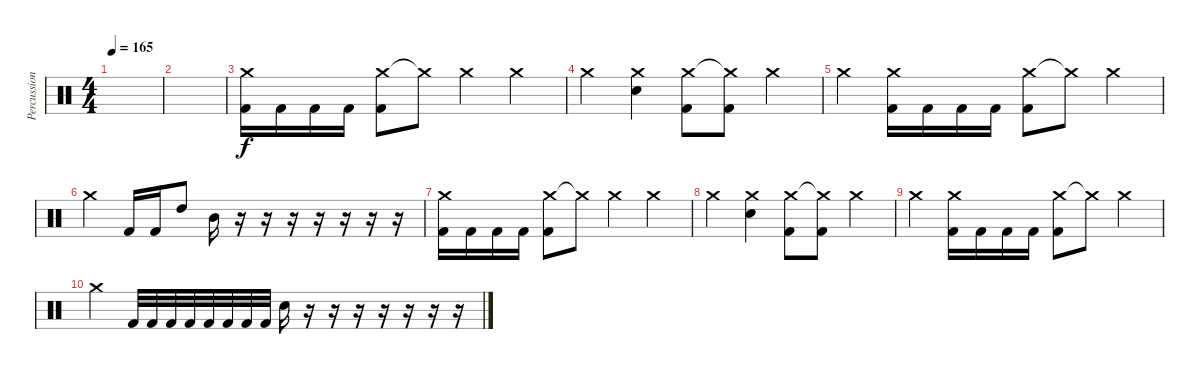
\track ("Percussion" "Percussion") {instrument percussion}
\staff {score}
\articulation defaults
\ts (4 4)
\tempo 165
\clef neutral
\ks c
|
|
("Crash medium (hit)" "Kick (hit) 2").16 "Kick (hit) 2".16 "Kick (hit) 2".16 "Kick (hit) 2".16 ("Crash medium (hit)" "Kick (hit) 2").8 "Crash medium (hit)"{t}.8 "Crash medium (hit)".4 "Crash medium (hit)".4 |
"Crash medium (hit)".4 ("Crash medium (hit)" "Snare (hit) 2").4 ("Crash medium (hit)" "Kick (hit) 2").8 ("Crash medium (hit)"{t} "Kick (hit) 2").8 "Crash medium (hit)".4 |
"Crash medium (hit)".4 ("Crash medium (hit)" "Kick (hit) 2").16 "Kick (hit) 2".16 "Kick (hit) 2".16 "Kick (hit) 2".16 ("Crash medium (hit)" "Kick (hit) 2").8 "Crash medium (hit)"{t}.8 "Crash medium (hit)".4 |
"Crash medium (hit)".4 "Kick (hit) 2".16 "Kick (hit) 2".16 "High Tom (hit)".8 "Mid Tom (hit)".16 r.16 r.16 r.16 r.16 r.16 r.16 r.16 |
("Crash medium (hit)" "Kick (hit) 2").16 "Kick (hit) 2".16 "Kick (hit) 2".16 "Kick (hit) 2".16 ("Crash medium (hit)" "Kick (hit) 2").8 "Crash medium (hit)"{t}.8 "Crash medium (hit)".4 "Crash medium (hit)".4 |
"Crash medium (hit)".4 ("Crash medium (hit)" "Snare (hit) 2").4 ("Crash medium (hit)" "Kick (hit) 2").8 ("Crash medium (hit)"{t} "Kick (hit) 2").8 "Crash medium (hit)".4 |
"Crash medium (hit)".4 ("Crash medium (hit)" "Kick (hit) 2").16 "Kick (hit) 2".16 "Kick (hit) 2".16 "Kick (hit) 2".16 ("Crash medium (hit)" "Kick (hit) 2").8 "Crash medium (hit)"{t}.8 "Crash medium (hit)".4 |
"Crash medium (hit)".4 "Kick (hit) 2".32 "Kick (hit) 2".32 "Kick (hit) 2".32 "Kick (hit) 2".32 "Kick (hit) 2".32 "Kick (hit) 2".32 "Kick (hit) 2".32 "Kick (hit) 2".32 "Snare (hit) 2".16 r.16 r.16 r.16 r.16 r.16 r.16 r.16
